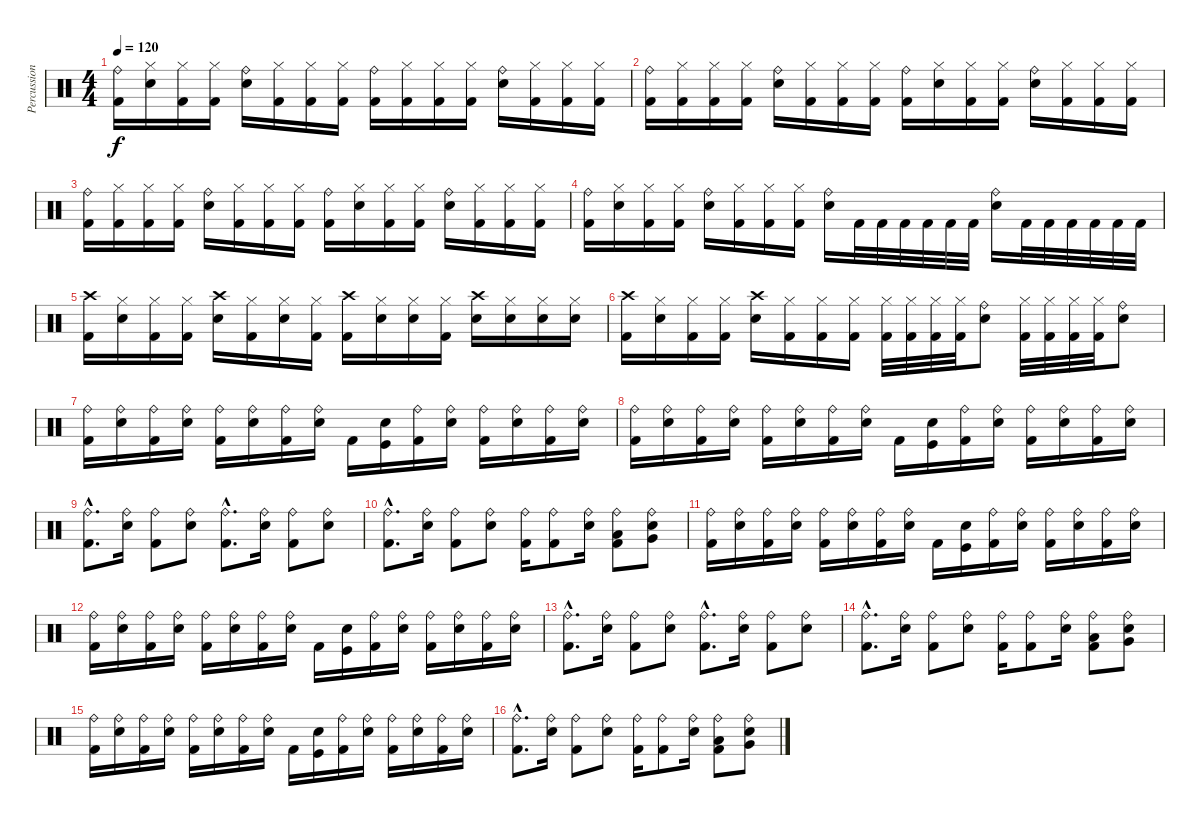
\track ("Percussions" "Percussion") {instrument percussion}
\staff {score}
\articulation defaults
\ts (4 4)
\tempo 120
\clef neutral
\ks c
("Ride (bell)" "Kick (hit) 2").16{dy f} ("Hi-Hat (closed)" "Electric Snare (hit)").16 ("Hi-Hat (closed)" "Kick (hit) 2").16 ("Hi-Hat (closed)" "Kick (hit) 2").16 ("Ride (bell)" "Electric Snare (hit)").16 ("Hi-Hat (closed)" "Kick (hit) 2").16 ("Hi-Hat (closed)" "Kick (hit) 2").16 ("Hi-Hat (closed)" "Kick (hit) 2").16 ("Ride (bell)" "Kick (hit) 2").16 ("Hi-Hat (closed)" "Kick (hit) 2").16 ("Hi-Hat (closed)" "Kick (hit) 2").16 ("Hi-Hat (closed)" "Kick (hit) 2").16 ("Ride (bell)" "Electric Snare (hit)").16 ("Hi-Hat (closed)" "Kick (hit) 2").16 ("Hi-Hat (closed)" "Kick (hit) 2").16 ("Hi-Hat (closed)" "Kick (hit) 2").16 |
("Ride (bell)" "Kick (hit) 2").16 ("Hi-Hat (closed)" "Kick (hit) 2").16 ("Hi-Hat (closed)" "Kick (hit) 2").16 ("Hi-Hat (closed)" "Kick (hit) 2").16 ("Ride (bell)" "Electric Snare (hit)").16 ("Hi-Hat (closed)" "Kick (hit) 2").16 ("Hi-Hat (closed)" "Kick (hit) 2").16 ("Hi-Hat (closed)" "Kick (hit) 2").16 ("Ride (bell)" "Kick (hit) 2").16 ("Hi-Hat (closed)" "Electric Snare (hit)").16 ("Hi-Hat (closed)" "Kick (hit) 2").16 ("Hi-Hat (closed)" "Kick (hit) 2").16 ("Ride (bell)" "Electric Snare (hit)").16 ("Hi-Hat (closed)" "Kick (hit) 2").16 ("Hi-Hat (closed)" "Kick (hit) 2").16 ("Hi-Hat (closed)" "Kick (hit) 2").16 |
("Ride (bell)" "Kick (hit) 2").16 ("Hi-Hat (closed)" "Kick (hit) 2").16 ("Hi-Hat (closed)" "Kick (hit) 2").16 ("Hi-Hat (closed)" "Kick (hit) 2").16 ("Ride (bell)" "Electric Snare (hit)").16 ("Hi-Hat (closed)" "Kick (hit) 2").16 ("Hi-Hat (closed)" "Kick (hit) 2").16 ("Hi-Hat (closed)" "Kick (hit) 2").16 ("Ride (bell)" "Kick (hit) 2").16 ("Hi-Hat (closed)" "Electric Snare (hit)").16 ("Hi-Hat (closed)" "Kick (hit) 2").16 ("Hi-Hat (closed)" "Kick (hit) 2").16 ("Ride (bell)" "Electric Snare (hit)").16 ("Hi-Hat (closed)" "Kick (hit) 2").16 ("Hi-Hat (closed)" "Kick (hit) 2").16 ("Hi-Hat (closed)" "Kick (hit) 2").16 |
("Ride (bell)" "Kick (hit) 2").16 ("Hi-Hat (closed)" "Electric Snare (hit)").16 ("Hi-Hat (closed)" "Kick (hit) 2").16 ("Hi-Hat (closed)" "Kick (hit) 2").16 ("Ride (bell)" "Electric Snare (hit)").16 ("Hi-Hat (closed)" "Kick (hit) 2").16 ("Hi-Hat (closed)" "Kick (hit) 2").16 ("Hi-Hat (closed)" "Kick (hit) 2").16 ("Ride (bell)" "Electric Snare (hit)").16 "Kick (hit) 2".32 "Kick (hit) 2".32 "Kick (hit) 2".32 "Kick (hit) 2".32 "Kick (hit) 2".32 "Kick (hit) 2".32 ("Ride (bell)" "Electric Snare (hit)").16 "Kick (hit) 2".32 "Kick (hit) 2".32 "Kick (hit) 2".32 "Kick (hit) 2".32 "Kick (hit) 2".32 "Kick (hit) 2".32 |
("Crash high (hit)" "Kick (hit) 2").16 ("Hi-Hat (closed)" "Electric Snare (hit)").16 ("Hi-Hat (closed)" "Kick (hit) 2").16 ("Hi-Hat (closed)" "Kick (hit) 2").16 ("Crash high (hit)" "Electric Snare (hit)").16 ("Hi-Hat (closed)" "Kick (hit) 2").16 ("Hi-Hat (closed)" "Electric Snare (hit)").16 ("Hi-Hat (closed)" "Kick (hit) 2").16 ("Crash high (hit)" "Kick (hit) 2").16 ("Hi-Hat (closed)" "Electric Snare (hit)").16 ("Hi-Hat (closed)" "Electric Snare (hit)").16 ("Hi-Hat (closed)" "Kick (hit) 2").16 ("Crash high (hit)" "Electric Snare (hit)").16 ("Hi-Hat (closed)" "Electric Snare (hit)").16 ("Hi-Hat (closed)" "Electric Snare (hit)").16 ("Hi-Hat (closed)" "Electric Snare (hit)").16 |
("Crash high (hit)" "Kick (hit) 2").16 ("Hi-Hat (closed)" "Electric Snare (hit)").16 ("Hi-Hat (closed)" "Kick (hit) 2").16 ("Hi-Hat (closed)" "Kick (hit) 2").16 ("Crash high (hit)" "Electric Snare (hit)").16 ("Hi-Hat (closed)" "Kick (hit) 2").16 ("Hi-Hat (closed)" "Kick (hit) 2").16 ("Hi-Hat (closed)" "Kick (hit) 2").16 ("Hi-Hat (closed)" "Kick (hit) 2").32 ("Hi-Hat (closed)" "Kick (hit) 2").32 ("Hi-Hat (closed)" "Kick (hit) 2").32 ("Hi-Hat (closed)" "Kick (hit) 2").32 ("Ride (bell)" "Electric Snare (hit)").8 ("Hi-Hat (closed)" "Kick (hit) 2").32 ("Hi-Hat (closed)" "Kick (hit) 2").32 ("Hi-Hat (closed)" "Kick (hit) 2").32 ("Hi-Hat (closed)" "Kick (hit) 2").32 ("Ride (bell)" "Electric Snare (hit)").8 |
("Ride (bell)" "Kick (hit) 2").16 ("Ride (bell)" "Electric Snare (hit)").16 ("Ride (bell)" "Kick (hit) 2").16 ("Ride (bell)" "Electric Snare (hit)").16 ("Ride (bell)" "Kick (hit) 2").16 ("Ride (bell)" "Electric Snare (hit)").16 ("Ride (bell)" "Kick (hit) 2").16 ("Ride (bell)" "Electric Snare (hit)").16 "Kick (hit) 2".16 ("Kick (hit)" "Electric Snare (hit)").16 ("Ride (bell)" "Kick (hit) 2").16 ("Ride (bell)" "Electric Snare (hit)").16 ("Ride (bell)" "Kick (hit) 2").16 ("Ride (bell)" "Electric Snare (hit)").16 ("Ride (bell)" "Kick (hit) 2").16 ("Ride (bell)" "Electric Snare (hit)").16 |
("Ride (bell)" "Kick (hit) 2").16 ("Ride (bell)" "Electric Snare (hit)").16 ("Ride (bell)" "Kick (hit) 2").16 ("Ride (bell)" "Electric Snare (hit)").16 ("Ride (bell)" "Kick (hit) 2").16 ("Ride (bell)" "Electric Snare (hit)").16 ("Ride (bell)" "Kick (hit) 2").16 ("Ride (bell)" "Electric Snare (hit)").16 "Kick (hit) 2".16 ("Kick (hit)" "Electric Snare (hit)").16 ("Ride (bell)" "Kick (hit) 2").16 ("Ride (bell)" "Electric Snare (hit)").16 ("Ride (bell)" "Kick (hit) 2").16 ("Ride (bell)" "Electric Snare (hit)").16 ("Ride (bell)" "Kick (hit) 2").16 ("Ride (bell)" "Electric Snare (hit)").16 |
("Ride (bell)"{hac} "Kick (hit) 2"{hac}).8{d} ("Ride (bell)" "Electric Snare (hit)").16 ("Ride (bell)" "Kick (hit) 2").8 ("Ride (bell)" "Electric Snare (hit)").8 ("Ride (bell)"{hac} "Kick (hit) 2"{hac}).8{d} ("Ride (bell)" "Electric Snare (hit)").16 ("Ride (bell)" "Kick (hit) 2").8 ("Ride (bell)" "Electric Snare (hit)").8 |
("Ride (bell)"{hac} "Kick (hit) 2"{hac}).8{d} ("Ride (bell)" "Electric Snare (hit)").16 ("Ride (bell)" "Kick (hit) 2").8 ("Ride (bell)" "Electric Snare (hit)").8 ("Ride (bell)" "Kick (hit) 2").16 ("Ride (bell)" "Kick (hit) 2").8 ("Ride (bell)" "Electric Snare (hit)").16 ("Ride (bell)" "Low Tom (hit)" "Kick (hit) 2").8 ("Ride (bell)" "Very Low Tom (hit)" "Electric Snare (hit)").8 |
("Ride (bell)" "Kick (hit) 2").16 ("Ride (bell)" "Electric Snare (hit)").16 ("Ride (bell)" "Kick (hit) 2").16 ("Ride (bell)" "Electric Snare (hit)").16 ("Ride (bell)" "Kick (hit) 2").16 ("Ride (bell)" "Electric Snare (hit)").16 ("Ride (bell)" "Kick (hit) 2").16 ("Ride (bell)" "Electric Snare (hit)").16 "Kick (hit) 2".16 ("Kick (hit)" "Electric Snare (hit)").16 ("Ride (bell)" "Kick (hit) 2").16 ("Ride (bell)" "Electric Snare (hit)").16 ("Ride (bell)" "Kick (hit) 2").16 ("Ride (bell)" "Electric Snare (hit)").16 ("Ride (bell)" "Kick (hit) 2").16 ("Ride (bell)" "Electric Snare (hit)").16 |
("Ride (bell)" "Kick (hit) 2").16 ("Ride (bell)" "Electric Snare (hit)").16 ("Ride (bell)" "Kick (hit) 2").16 ("Ride (bell)" "Electric Snare (hit)").16 ("Ride (bell)" "Kick (hit) 2").16 ("Ride (bell)" "Electric Snare (hit)").16 ("Ride (bell)" "Kick (hit) 2").16 ("Ride (bell)" "Electric Snare (hit)").16 "Kick (hit) 2".16 ("Kick (hit)" "Electric Snare (hit)").16 ("Ride (bell)" "Kick (hit) 2").16 ("Ride (bell)" "Electric Snare (hit)").16 ("Ride (bell)" "Kick (hit) 2").16 ("Ride (bell)" "Electric Snare (hit)").16 ("Ride (bell)" "Kick (hit) 2").16 ("Ride (bell)" "Electric Snare (hit)").16 |
("Ride (bell)"{hac} "Kick (hit) 2"{hac}).8{d} ("Ride (bell)" "Electric Snare (hit)").16 ("Ride (bell)" "Kick (hit) 2").8 ("Ride (bell)" "Electric Snare (hit)").8 ("Ride (bell)"{hac} "Kick (hit) 2"{hac}).8{d} ("Ride (bell)" "Electric Snare (hit)").16 ("Ride (bell)" "Kick (hit) 2").8 ("Ride (bell)" "Electric Snare (hit)").8 |
("Ride (bell)"{hac} "Kick (hit) 2"{hac}).8{d} ("Ride (bell)" "Electric Snare (hit)").16 ("Ride (bell)" "Kick (hit) 2").8 ("Ride (bell)" "Electric Snare (hit)").8 ("Ride (bell)" "Kick (hit) 2").16 ("Ride (bell)" "Kick (hit) 2").8 ("Ride (bell)" "Electric Snare (hit)").16 ("Ride (bell)" "Low Tom (hit)" "Kick (hit) 2").8 ("Ride (bell)" "Very Low Tom (hit)" "Electric Snare (hit)").8 |
("Ride (bell)" "Kick (hit) 2").16 ("Ride (bell)" "Electric Snare (hit)").16 ("Ride (bell)" "Kick (hit) 2").16 ("Ride (bell)" "Electric Snare (hit)").16 ("Ride (bell)" "Kick (hit) 2").16 ("Ride (bell)" "Electric Snare (hit)").16 ("Ride (bell)" "Kick (hit) 2").16 ("Ride (bell)" "Electric Snare (hit)").16 "Kick (hit) 2".16 ("Kick (hit)" "Electric Snare (hit)").16 ("Ride (bell)" "Kick (hit) 2").16 ("Ride (bell)" "Electric Snare (hit)").16 ("Ride (bell)" "Kick (hit) 2").16 ("Ride (bell)" "Electric Snare (hit)").16 ("Ride (bell)" "Kick (hit) 2").16 ("Ride (bell)" "Electric Snare (hit)").16 |
("Ride (bell)"{hac} "Kick (hit) 2"{hac}).8{d} ("Ride (bell)" "Electric Snare (hit)").16 ("Ride (bell)" "Kick (hit) 2").8 ("Ride (bell)" "Electric Snare (hit)").8 ("Ride (bell)" "Kick (hit) 2").16 ("Ride (bell)" "Kick (hit) 2").8 ("Ride (bell)" "Electric Snare (hit)").16 ("Ride (bell)" "Low Tom (hit)" "Kick (hit) 2").8 ("Ride (bell)" "Very Low Tom (hit)" "Electric Snare (hit)").8
